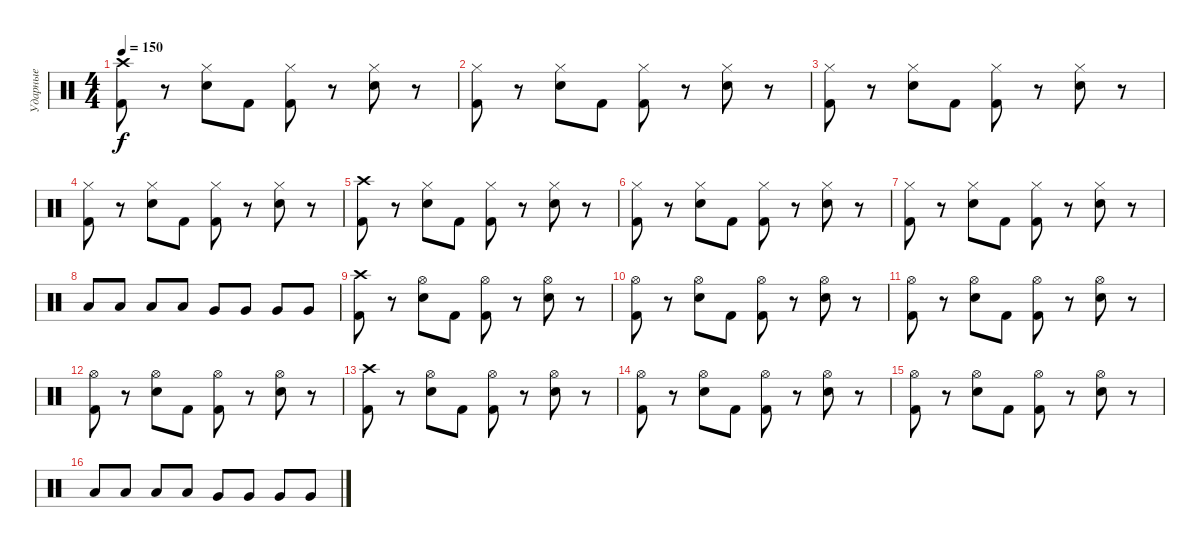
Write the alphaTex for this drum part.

\track ("Ударные" "Ударные") {instrument percussion}
\staff {score}
\articulation defaults
\ts (4 4)
\tempo 150
\clef neutral
\ks c
("Kick (hit) 2" "Crash high (hit)").8{dy f} r.8 ("Hi-Hat (closed)" "Snare (hit) 2").8 "Kick (hit) 2".8 ("Hi-Hat (closed)" "Kick (hit) 2").8 r.8 ("Hi-Hat (closed)" "Snare (hit) 2").8 r.8 |
("Kick (hit) 2" "Hi-Hat (closed)").8 r.8 ("Snare (hit) 2" "Hi-Hat (closed)").8 "Kick (hit) 2".8 ("Kick (hit) 2" "Hi-Hat (closed)").8 r.8 ("Snare (hit) 2" "Hi-Hat (closed)").8 r.8 |
("Kick (hit) 2" "Hi-Hat (closed)").8 r.8 ("Snare (hit) 2" "Hi-Hat (closed)").8 "Kick (hit) 2".8 ("Kick (hit) 2" "Hi-Hat (closed)").8 r.8 ("Snare (hit) 2" "Hi-Hat (closed)").8 r.8 |
("Kick (hit) 2" "Hi-Hat (closed)").8 r.8 ("Snare (hit) 2" "Hi-Hat (closed)").8 "Kick (hit) 2".8 ("Kick (hit) 2" "Hi-Hat (closed)").8 r.8 ("Snare (hit) 2" "Hi-Hat (closed)").8 r.8 |
("Kick (hit) 2" "Crash high (hit)").8 r.8 ("Hi-Hat (closed)" "Snare (hit) 2").8 "Kick (hit) 2".8 ("Hi-Hat (closed)" "Kick (hit) 2").8 r.8 ("Hi-Hat (closed)" "Snare (hit) 2").8 r.8 |
("Kick (hit) 2" "Hi-Hat (closed)").8 r.8 ("Snare (hit) 2" "Hi-Hat (closed)").8 "Kick (hit) 2".8 ("Kick (hit) 2" "Hi-Hat (closed)").8 r.8 ("Snare (hit) 2" "Hi-Hat (closed)").8 r.8 |
("Kick (hit) 2" "Hi-Hat (closed)").8 r.8 ("Snare (hit) 2" "Hi-Hat (closed)").8 "Kick (hit) 2".8 ("Kick (hit) 2" "Hi-Hat (closed)").8 r.8 ("Snare (hit) 2" "Hi-Hat (closed)").8 r.8 |
"Low Tom (hit)".8 "Low Tom (hit)".8 "Low Tom (hit)".8 "Low Tom (hit)".8 "Very Low Tom (hit)".8 "Very Low Tom (hit)".8 "Very Low Tom (hit)".8 "Very Low Tom (hit)".8 |
("Kick (hit) 2" "Crash high (hit)").8 r.8 ("Hi-Hat (open)" "Snare (hit) 2").8 "Kick (hit) 2".8 ("Hi-Hat (open)" "Kick (hit) 2").8 r.8 ("Hi-Hat (open)" "Snare (hit) 2").8 r.8 |
("Kick (hit) 2" "Hi-Hat (open)").8 r.8 ("Snare (hit) 2" "Hi-Hat (open)").8 "Kick (hit) 2".8 ("Kick (hit) 2" "Hi-Hat (open)").8 r.8 ("Snare (hit) 2" "Hi-Hat (open)").8 r.8 |
("Kick (hit) 2" "Hi-Hat (open)").8 r.8 ("Snare (hit) 2" "Hi-Hat (open)").8 "Kick (hit) 2".8 ("Kick (hit) 2" "Hi-Hat (open)").8 r.8 ("Snare (hit) 2" "Hi-Hat (open)").8 r.8 |
("Kick (hit) 2" "Hi-Hat (open)").8 r.8 ("Snare (hit) 2" "Hi-Hat (open)").8 "Kick (hit) 2".8 ("Kick (hit) 2" "Hi-Hat (open)").8 r.8 ("Snare (hit) 2" "Hi-Hat (open)").8 r.8 |
("Kick (hit) 2" "Crash high (hit)").8 r.8 ("Hi-Hat (open)" "Snare (hit) 2").8 "Kick (hit) 2".8 ("Hi-Hat (open)" "Kick (hit) 2").8 r.8 ("Hi-Hat (open)" "Snare (hit) 2").8 r.8 |
("Kick (hit) 2" "Hi-Hat (open)").8 r.8 ("Snare (hit) 2" "Hi-Hat (open)").8 "Kick (hit) 2".8 ("Kick (hit) 2" "Hi-Hat (open)").8 r.8 ("Snare (hit) 2" "Hi-Hat (open)").8 r.8 |
("Kick (hit) 2" "Hi-Hat (open)").8 r.8 ("Snare (hit) 2" "Hi-Hat (open)").8 "Kick (hit) 2".8 ("Kick (hit) 2" "Hi-Hat (open)").8 r.8 ("Snare (hit) 2" "Hi-Hat (open)").8 r.8 |
"Low Tom (hit)".8 "Low Tom (hit)".8 "Low Tom (hit)".8 "Low Tom (hit)".8 "Very Low Tom (hit)".8 "Very Low Tom (hit)".8 "Very Low Tom (hit)".8 "Very Low Tom (hit)".8
